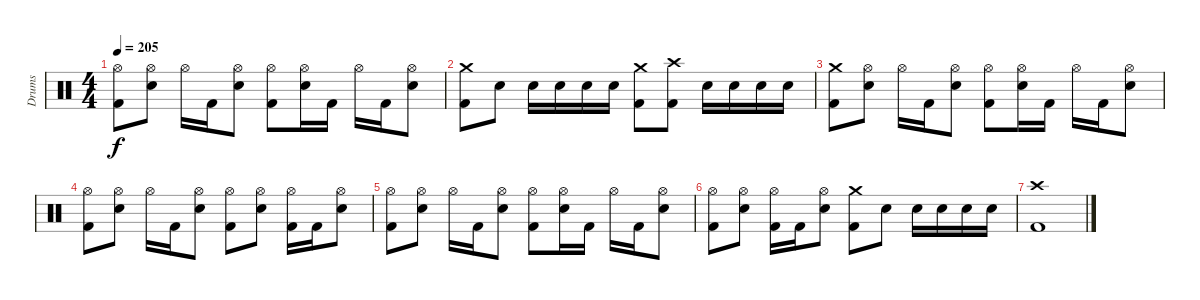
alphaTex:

\track ("Drums" "Drums") {instrument percussion}
\staff {score}
\articulation defaults
\ts (4 4)
\tempo 205
\clef neutral
\ks c
("Kick (hit) 2" "Hi-Hat (open)").8{dy f} ("Electric Snare (hit)" "Hi-Hat (open)").8 "Hi-Hat (open)".16 "Kick (hit) 2".16 ("Electric Snare (hit)" "Hi-Hat (open)").8 ("Kick (hit) 2" "Hi-Hat (open)").8 ("Electric Snare (hit)" "Hi-Hat (open)").16 "Kick (hit) 2".16 "Hi-Hat (open)".16 "Kick (hit) 2".16 ("Electric Snare (hit)" "Hi-Hat (open)").8 |
("Kick (hit) 2" "Crash medium (hit)").8 "Electric Snare (hit)".8 "Electric Snare (hit)".16 "Electric Snare (hit)".16 "Electric Snare (hit)".16 "Electric Snare (hit)".16 ("Kick (hit) 2" "Crash medium (hit)").8 ("Kick (hit) 2" "Crash high (hit)").8 "Electric Snare (hit)".16 "Electric Snare (hit)".16 "Electric Snare (hit)".16 "Electric Snare (hit)".16 |
("Kick (hit) 2" "Crash medium (hit)").8 ("Electric Snare (hit)" "Hi-Hat (open)").8 "Hi-Hat (open)".16 "Kick (hit) 2".16 ("Electric Snare (hit)" "Hi-Hat (open)").8 ("Kick (hit) 2" "Hi-Hat (open)").8 ("Electric Snare (hit)" "Hi-Hat (open)").16 "Kick (hit) 2".16 "Hi-Hat (open)".16 "Kick (hit) 2".16 ("Electric Snare (hit)" "Hi-Hat (open)").8 |
("Kick (hit) 2" "Hi-Hat (open)").8 ("Electric Snare (hit)" "Hi-Hat (open)").8 "Hi-Hat (open)".16 "Kick (hit) 2".16 ("Electric Snare (hit)" "Hi-Hat (open)").8 ("Kick (hit) 2" "Hi-Hat (open)").8 ("Electric Snare (hit)" "Hi-Hat (open)").8 ("Kick (hit) 2" "Hi-Hat (open)").16 "Kick (hit) 2".16 ("Electric Snare (hit)" "Hi-Hat (open)").8 |
("Kick (hit) 2" "Hi-Hat (open)").8 ("Electric Snare (hit)" "Hi-Hat (open)").8 "Hi-Hat (open)".16 "Kick (hit) 2".16 ("Electric Snare (hit)" "Hi-Hat (open)").8 ("Kick (hit) 2" "Hi-Hat (open)").8 ("Electric Snare (hit)" "Hi-Hat (open)").16 "Kick (hit) 2".16 "Hi-Hat (open)".16 "Kick (hit) 2".16 ("Electric Snare (hit)" "Hi-Hat (open)").8 |
("Kick (hit) 2" "Hi-Hat (open)").8 ("Electric Snare (hit)" "Hi-Hat (open)").8 ("Kick (hit) 2" "Hi-Hat (open)").16 "Kick (hit) 2".16 ("Electric Snare (hit)" "Hi-Hat (open)").8 ("Kick (hit) 2" "Crash medium (hit)").8 "Electric Snare (hit)".8 "Electric Snare (hit)".16 "Electric Snare (hit)".16 "Electric Snare (hit)".16 "Electric Snare (hit)".16 |
("Kick (hit) 2" "Crash high (hit)").1
